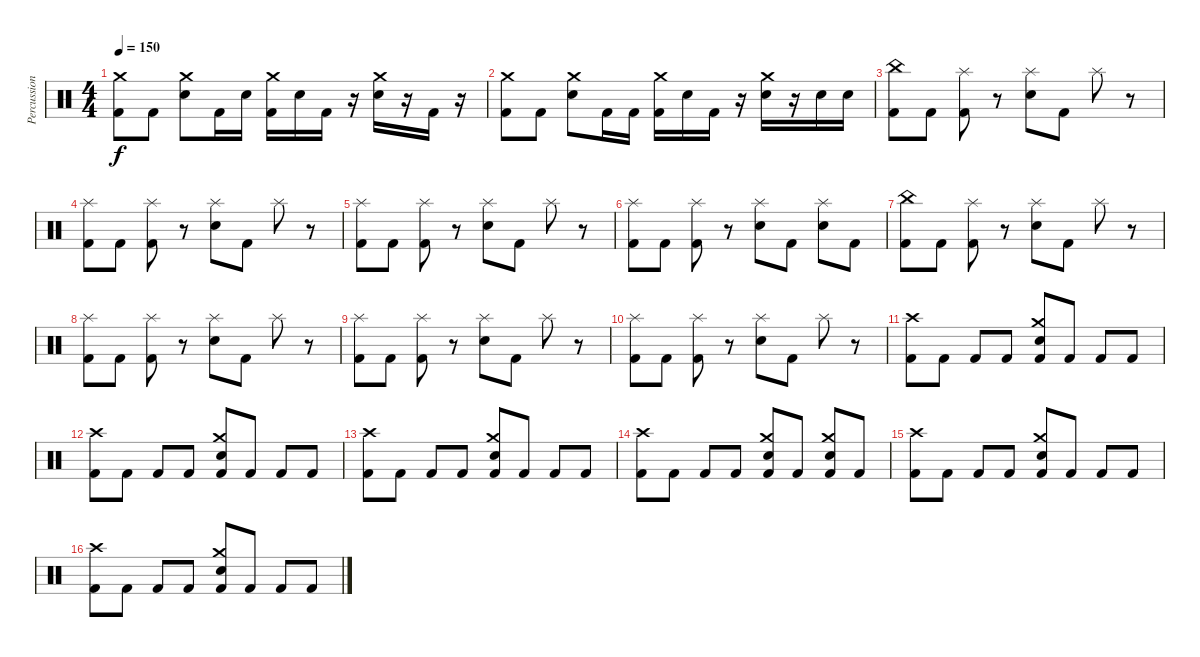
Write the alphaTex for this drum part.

\track ("Percussion" "Percussion") {instrument percussion}
\staff {score}
\articulation defaults
\ts (4 4)
\tempo 150
\clef neutral
\ks c
("Kick (hit) 2" "Crash medium (hit)").8{dy f} "Kick (hit) 2".8 ("Electric Snare (hit)" "Crash medium (hit)").8 "Kick (hit) 2".16 "Electric Snare (hit)".16 ("Kick (hit) 2" "Crash medium (hit)").16 "Electric Snare (hit)".16 "Kick (hit) 2".16 r.16 ("Electric Snare (hit)" "Crash medium (hit)").16 r.16 "Kick (hit) 2".16 r.16 |
("Kick (hit) 2" "Crash medium (hit)").8 "Kick (hit) 2".8 ("Electric Snare (hit)" "Crash medium (hit)").8 "Kick (hit) 2".16 "Kick (hit) 2".16 ("Kick (hit) 2" "Crash medium (hit)").16 "Electric Snare (hit)".16 "Kick (hit) 2".16 r.16 ("Electric Snare (hit)" "Crash medium (hit)").16 r.16 "Electric Snare (hit)".16 "Electric Snare (hit)".16 |
("China (hit)" "Kick (hit) 2").8 "Kick (hit) 2".8 ("Splash (hit)" "Kick (hit) 2").8 r.8 ("Splash (hit)" "Electric Snare (hit)").8 "Kick (hit) 2".8 "Splash (hit)".8 r.8 |
("Splash (hit)" "Kick (hit) 2").8 "Kick (hit) 2".8 ("Splash (hit)" "Kick (hit) 2").8 r.8 ("Splash (hit)" "Electric Snare (hit)").8 "Kick (hit) 2".8 "Splash (hit)".8 r.8 |
("Splash (hit)" "Kick (hit) 2").8 "Kick (hit) 2".8 ("Splash (hit)" "Kick (hit) 2").8 r.8 ("Splash (hit)" "Electric Snare (hit)").8 "Kick (hit) 2".8 "Splash (hit)".8 r.8 |
("Splash (hit)" "Kick (hit) 2").8 "Kick (hit) 2".8 ("Splash (hit)" "Kick (hit) 2").8 r.8 ("Splash (hit)" "Electric Snare (hit)").8 "Kick (hit) 2".8 ("Splash (hit)" "Electric Snare (hit)").8 "Kick (hit) 2".8 |
("China (hit)" "Kick (hit) 2").8 "Kick (hit) 2".8 ("Splash (hit)" "Kick (hit) 2").8 r.8 ("Splash (hit)" "Electric Snare (hit)").8 "Kick (hit) 2".8 "Splash (hit)".8 r.8 |
("Splash (hit)" "Kick (hit) 2").8 "Kick (hit) 2".8 ("Splash (hit)" "Kick (hit) 2").8 r.8 ("Splash (hit)" "Electric Snare (hit)").8 "Kick (hit) 2".8 "Splash (hit)".8 r.8 |
("Splash (hit)" "Kick (hit) 2").8 "Kick (hit) 2".8 ("Splash (hit)" "Kick (hit) 2").8 r.8 ("Splash (hit)" "Electric Snare (hit)").8 "Kick (hit) 2".8 "Splash (hit)".8 r.8 |
("Splash (hit)" "Kick (hit) 2").8 "Kick (hit) 2".8 ("Splash (hit)" "Kick (hit) 2").8 r.8 ("Splash (hit)" "Electric Snare (hit)").8 "Kick (hit) 2".8 "Splash (hit)".8 r.8 |
("Kick (hit) 2" "Crash high (hit)").8 "Kick (hit) 2".8 "Kick (hit) 2".8 "Kick (hit) 2".8 ("Electric Snare (hit)" "Kick (hit) 2" "Crash medium (hit)").8 "Kick (hit) 2".8 "Kick (hit) 2".8 "Kick (hit) 2".8 |
("Kick (hit) 2" "Crash high (hit)").8 "Kick (hit) 2".8 "Kick (hit) 2".8 "Kick (hit) 2".8 ("Electric Snare (hit)" "Kick (hit) 2" "Crash medium (hit)").8 "Kick (hit) 2".8 "Kick (hit) 2".8 "Kick (hit) 2".8 |
("Kick (hit) 2" "Crash high (hit)").8 "Kick (hit) 2".8 "Kick (hit) 2".8 "Kick (hit) 2".8 ("Electric Snare (hit)" "Kick (hit) 2" "Crash medium (hit)").8 "Kick (hit) 2".8 "Kick (hit) 2".8 "Kick (hit) 2".8 |
("Kick (hit) 2" "Crash high (hit)").8 "Kick (hit) 2".8 "Kick (hit) 2".8 "Kick (hit) 2".8 ("Electric Snare (hit)" "Kick (hit) 2" "Crash medium (hit)").8 "Kick (hit) 2".8 ("Kick (hit) 2" "Electric Snare (hit)" "Crash medium (hit)").8 "Kick (hit) 2".8 |
("Kick (hit) 2" "Crash high (hit)").8 "Kick (hit) 2".8 "Kick (hit) 2".8 "Kick (hit) 2".8 ("Electric Snare (hit)" "Kick (hit) 2" "Crash medium (hit)").8 "Kick (hit) 2".8 "Kick (hit) 2".8 "Kick (hit) 2".8 |
("Kick (hit) 2" "Crash high (hit)").8 "Kick (hit) 2".8 "Kick (hit) 2".8 "Kick (hit) 2".8 ("Electric Snare (hit)" "Kick (hit) 2" "Crash medium (hit)").8 "Kick (hit) 2".8 "Kick (hit) 2".8 "Kick (hit) 2".8
